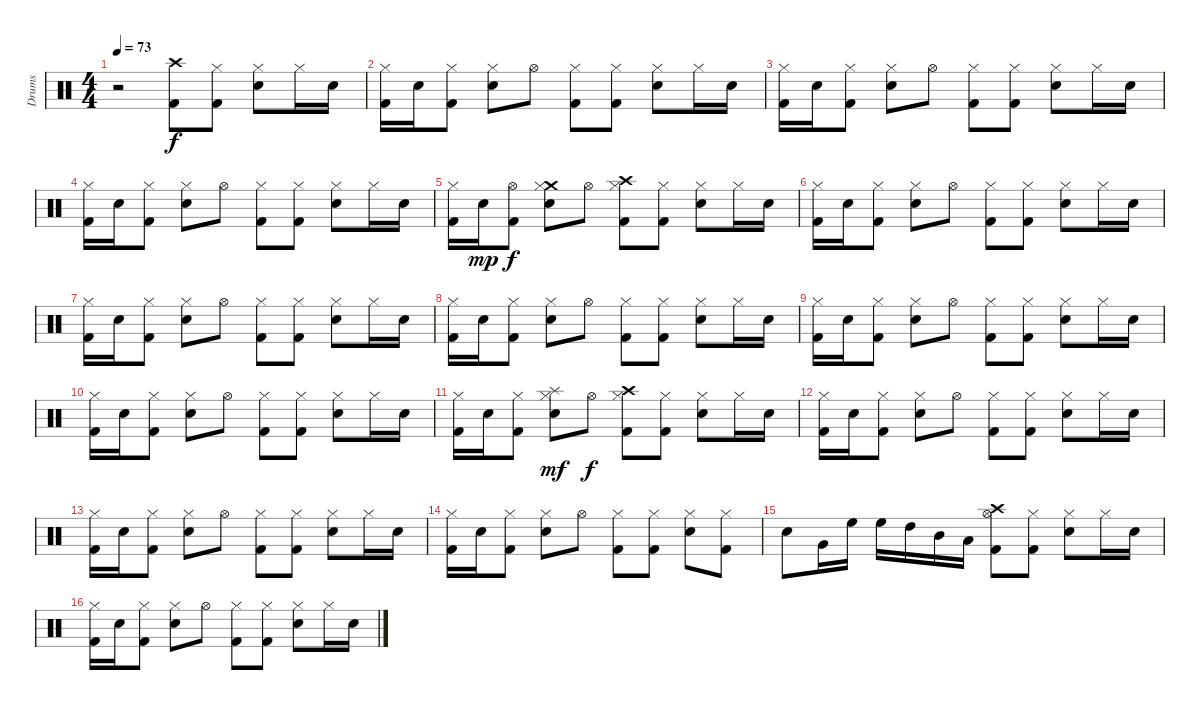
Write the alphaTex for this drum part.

\track ("Drums" "Drums") {instrument percussion}
\staff {score}
\articulation defaults
\ts (4 4)
\tempo 73
\clef neutral
\ks c
r.2{dy f} ("Crash high (hit)" "Kick (hit) 2").8 ("Hi-Hat (closed)" "Kick (hit) 2").8 ("Hi-Hat (closed)" "Electric Snare (hit)").8 "Hi-Hat (closed)".16 "Electric Snare (hit)".16 |
("Hi-Hat (closed)" "Kick (hit) 2").16 "Electric Snare (hit)".16 ("Hi-Hat (closed)" "Kick (hit) 2").8 ("Hi-Hat (closed)" "Electric Snare (hit)").8 "Hi-Hat (open)".8 ("Hi-Hat (closed)" "Kick (hit) 2").8 ("Hi-Hat (closed)" "Kick (hit) 2").8 ("Hi-Hat (closed)" "Electric Snare (hit)").8 "Hi-Hat (closed)".16 "Electric Snare (hit)".16 |
("Hi-Hat (closed)" "Kick (hit) 2").16 "Electric Snare (hit)".16 ("Hi-Hat (closed)" "Kick (hit) 2").8 ("Hi-Hat (closed)" "Electric Snare (hit)").8 "Hi-Hat (open)".8 ("Hi-Hat (closed)" "Kick (hit) 2").8 ("Hi-Hat (closed)" "Kick (hit) 2").8 ("Hi-Hat (closed)" "Electric Snare (hit)").8 "Hi-Hat (closed)".16 "Electric Snare (hit)".16 |
("Hi-Hat (closed)" "Kick (hit) 2").16 "Electric Snare (hit)".16 ("Hi-Hat (closed)" "Kick (hit) 2").8 ("Hi-Hat (closed)" "Electric Snare (hit)").8 "Hi-Hat (open)".8 ("Hi-Hat (closed)" "Kick (hit) 2").8 ("Hi-Hat (closed)" "Kick (hit) 2").8 ("Hi-Hat (closed)" "Electric Snare (hit)").8 "Hi-Hat (closed)".16 "Electric Snare (hit)".16 |
("Hi-Hat (closed)" "Kick (hit) 2").16 "Electric Snare (hit)".16{dy mp} ("Hi-Hat (open)" "Kick (hit) 2").8{dy f} ("Crash medium (hit)" "Hi-Hat (closed)" "Electric Snare (hit)").8 "Hi-Hat (open)".8 ("Crash high (hit)" "Hi-Hat (closed)" "Kick (hit) 2").8 ("Hi-Hat (closed)" "Kick (hit) 2").8 ("Hi-Hat (closed)" "Electric Snare (hit)").8 "Hi-Hat (closed)".16 "Electric Snare (hit)".16 |
("Hi-Hat (closed)" "Kick (hit) 2").16 "Electric Snare (hit)".16 ("Hi-Hat (closed)" "Kick (hit) 2").8 ("Hi-Hat (closed)" "Electric Snare (hit)").8 "Hi-Hat (open)".8 ("Hi-Hat (closed)" "Kick (hit) 2").8 ("Hi-Hat (closed)" "Kick (hit) 2").8 ("Hi-Hat (closed)" "Electric Snare (hit)").8 "Hi-Hat (closed)".16 "Electric Snare (hit)".16 |
("Hi-Hat (closed)" "Kick (hit) 2").16 "Electric Snare (hit)".16 ("Hi-Hat (closed)" "Kick (hit) 2").8 ("Hi-Hat (closed)" "Electric Snare (hit)").8 "Hi-Hat (open)".8 ("Hi-Hat (closed)" "Kick (hit) 2").8 ("Hi-Hat (closed)" "Kick (hit) 2").8 ("Hi-Hat (closed)" "Electric Snare (hit)").8 "Hi-Hat (closed)".16 "Electric Snare (hit)".16 |
("Hi-Hat (closed)" "Kick (hit) 2").16 "Electric Snare (hit)".16 ("Hi-Hat (closed)" "Kick (hit) 2").8 ("Hi-Hat (closed)" "Electric Snare (hit)").8 "Hi-Hat (open)".8 ("Hi-Hat (closed)" "Kick (hit) 2").8 ("Hi-Hat (closed)" "Kick (hit) 2").8 ("Hi-Hat (closed)" "Electric Snare (hit)").8 "Hi-Hat (closed)".16 "Electric Snare (hit)".16 |
("Hi-Hat (closed)" "Kick (hit) 2").16 "Electric Snare (hit)".16 ("Hi-Hat (closed)" "Kick (hit) 2").8 ("Hi-Hat (closed)" "Electric Snare (hit)").8 "Hi-Hat (open)".8 ("Hi-Hat (closed)" "Kick (hit) 2").8 ("Hi-Hat (closed)" "Kick (hit) 2").8 ("Hi-Hat (closed)" "Electric Snare (hit)").8 "Hi-Hat (closed)".16 "Electric Snare (hit)".16 |
("Hi-Hat (closed)" "Kick (hit) 2").16 "Electric Snare (hit)".16 ("Hi-Hat (closed)" "Kick (hit) 2").8 ("Hi-Hat (closed)" "Electric Snare (hit)").8 "Hi-Hat (open)".8 ("Hi-Hat (closed)" "Kick (hit) 2").8 ("Hi-Hat (closed)" "Kick (hit) 2").8 ("Hi-Hat (closed)" "Electric Snare (hit)").8 "Hi-Hat (closed)".16 "Electric Snare (hit)".16 |
("Hi-Hat (closed)" "Kick (hit) 2").16 "Electric Snare (hit)".16 ("Hi-Hat (closed)" "Kick (hit) 2").8 ("Splash (hit)" "Hi-Hat (closed)" "Electric Snare (hit)").8{dy mf} "Hi-Hat (open)".8{dy f} ("Crash high (hit)" "Hi-Hat (closed)" "Kick (hit) 2").8 ("Hi-Hat (closed)" "Kick (hit) 2").8 ("Hi-Hat (closed)" "Electric Snare (hit)").8 "Hi-Hat (closed)".16 "Electric Snare (hit)".16 |
("Hi-Hat (closed)" "Kick (hit) 2").16 "Electric Snare (hit)".16 ("Hi-Hat (closed)" "Kick (hit) 2").8 ("Hi-Hat (closed)" "Electric Snare (hit)").8 "Hi-Hat (open)".8 ("Hi-Hat (closed)" "Kick (hit) 2").8 ("Hi-Hat (closed)" "Kick (hit) 2").8 ("Hi-Hat (closed)" "Electric Snare (hit)").8 "Hi-Hat (closed)".16 "Electric Snare (hit)".16 |
("Hi-Hat (closed)" "Kick (hit) 2").16 "Electric Snare (hit)".16 ("Hi-Hat (closed)" "Kick (hit) 2").8 ("Hi-Hat (closed)" "Electric Snare (hit)").8 "Hi-Hat (open)".8 ("Hi-Hat (closed)" "Kick (hit) 2").8 ("Hi-Hat (closed)" "Kick (hit) 2").8 ("Hi-Hat (closed)" "Electric Snare (hit)").8 "Hi-Hat (closed)".16 "Electric Snare (hit)".16 |
("Hi-Hat (closed)" "Kick (hit) 2").16 "Electric Snare (hit)".16 ("Hi-Hat (closed)" "Kick (hit) 2").8 ("Hi-Hat (closed)" "Electric Snare (hit)").8 "Hi-Hat (open)".8 ("Hi-Hat (closed)" "Kick (hit) 2").8 ("Hi-Hat (closed)" "Kick (hit) 2").8 ("Hi-Hat (closed)" "Electric Snare (hit)").8 ("Hi-Hat (closed)" "Kick (hit) 2").8 |
"Electric Snare (hit)".8 "Very Low Tom (hit)".16 "High Floor Tom (hit)".16 "High Floor Tom (hit)".16 "High Tom (hit)".16 "Mid Tom (hit)".16 "Low Tom (hit)".16 ("Crash high (hit)" "Hi-Hat (open)" "Kick (hit) 2").8 ("Hi-Hat (closed)" "Kick (hit) 2").8 ("Hi-Hat (closed)" "Electric Snare (hit)").8 "Hi-Hat (closed)".16 "Electric Snare (hit)".16 |
("Hi-Hat (closed)" "Kick (hit) 2").16 "Electric Snare (hit)".16 ("Hi-Hat (closed)" "Kick (hit) 2").8 ("Hi-Hat (closed)" "Electric Snare (hit)").8 "Hi-Hat (open)".8 ("Hi-Hat (closed)" "Kick (hit) 2").8 ("Hi-Hat (closed)" "Kick (hit) 2").8 ("Hi-Hat (closed)" "Electric Snare (hit)").8 "Hi-Hat (closed)".16 "Electric Snare (hit)".16
